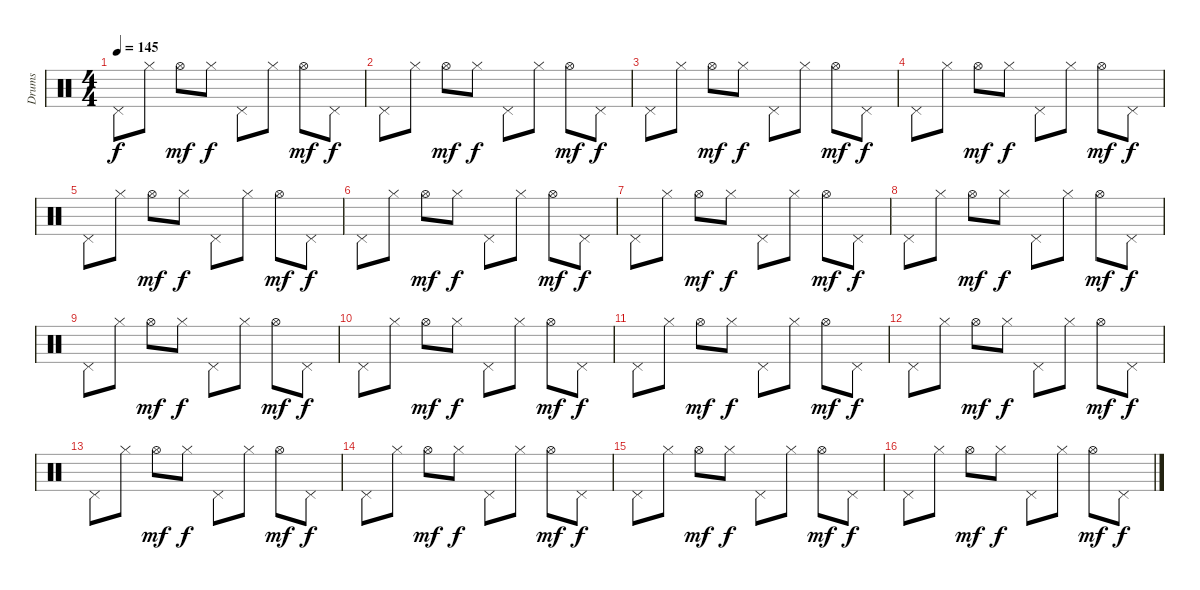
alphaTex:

\track ("Drums" "Drums") {instrument percussion}
\staff {score}
\articulation defaults
\ts (4 4)
\tempo 145
\clef neutral
\ks c "Pedal Hi-Hat (hit)".8{dy f} "Hi-Hat (closed)".8 "Hi-Hat (open)".8{dy mf} "Hi-Hat (closed)".8{dy f} "Pedal Hi-Hat (hit)".8 "Hi-Hat (closed)".8 "Hi-Hat (open)".8{dy mf} "Pedal Hi-Hat (hit)".8{dy f}
|
"Pedal Hi-Hat (hit)".8 "Hi-Hat (closed)".8 "Hi-Hat (open)".8{dy mf} "Hi-Hat (closed)".8{dy f} "Pedal Hi-Hat (hit)".8 "Hi-Hat (closed)".8 "Hi-Hat (open)".8{dy mf} "Pedal Hi-Hat (hit)".8{dy f} |
"Pedal Hi-Hat (hit)".8 "Hi-Hat (closed)".8 "Hi-Hat (open)".8{dy mf} "Hi-Hat (closed)".8{dy f} "Pedal Hi-Hat (hit)".8 "Hi-Hat (closed)".8 "Hi-Hat (open)".8{dy mf} "Pedal Hi-Hat (hit)".8{dy f} |
"Pedal Hi-Hat (hit)".8 "Hi-Hat (closed)".8 "Hi-Hat (open)".8{dy mf} "Hi-Hat (closed)".8{dy f} "Pedal Hi-Hat (hit)".8 "Hi-Hat (closed)".8 "Hi-Hat (open)".8{dy mf} "Pedal Hi-Hat (hit)".8{dy f} |
"Pedal Hi-Hat (hit)".8 "Hi-Hat (closed)".8 "Hi-Hat (open)".8{dy mf} "Hi-Hat (closed)".8{dy f} "Pedal Hi-Hat (hit)".8 "Hi-Hat (closed)".8 "Hi-Hat (open)".8{dy mf} "Pedal Hi-Hat (hit)".8{dy f} |
"Pedal Hi-Hat (hit)".8 "Hi-Hat (closed)".8 "Hi-Hat (open)".8{dy mf} "Hi-Hat (closed)".8{dy f} "Pedal Hi-Hat (hit)".8 "Hi-Hat (closed)".8 "Hi-Hat (open)".8{dy mf} "Pedal Hi-Hat (hit)".8{dy f} |
"Pedal Hi-Hat (hit)".8 "Hi-Hat (closed)".8 "Hi-Hat (open)".8{dy mf} "Hi-Hat (closed)".8{dy f} "Pedal Hi-Hat (hit)".8 "Hi-Hat (closed)".8 "Hi-Hat (open)".8{dy mf} "Pedal Hi-Hat (hit)".8{dy f} |
"Pedal Hi-Hat (hit)".8 "Hi-Hat (closed)".8 "Hi-Hat (open)".8{dy mf} "Hi-Hat (closed)".8{dy f} "Pedal Hi-Hat (hit)".8 "Hi-Hat (closed)".8 "Hi-Hat (open)".8{dy mf} "Pedal Hi-Hat (hit)".8{dy f} |
"Pedal Hi-Hat (hit)".8 "Hi-Hat (closed)".8 "Hi-Hat (open)".8{dy mf} "Hi-Hat (closed)".8{dy f} "Pedal Hi-Hat (hit)".8 "Hi-Hat (closed)".8 "Hi-Hat (open)".8{dy mf} "Pedal Hi-Hat (hit)".8{dy f} |
"Pedal Hi-Hat (hit)".8 "Hi-Hat (closed)".8 "Hi-Hat (open)".8{dy mf} "Hi-Hat (closed)".8{dy f} "Pedal Hi-Hat (hit)".8 "Hi-Hat (closed)".8 "Hi-Hat (open)".8{dy mf} "Pedal Hi-Hat (hit)".8{dy f} |
"Pedal Hi-Hat (hit)".8 "Hi-Hat (closed)".8 "Hi-Hat (open)".8{dy mf} "Hi-Hat (closed)".8{dy f} "Pedal Hi-Hat (hit)".8 "Hi-Hat (closed)".8 "Hi-Hat (open)".8{dy mf} "Pedal Hi-Hat (hit)".8{dy f} |
"Pedal Hi-Hat (hit)".8 "Hi-Hat (closed)".8 "Hi-Hat (open)".8{dy mf} "Hi-Hat (closed)".8{dy f} "Pedal Hi-Hat (hit)".8 "Hi-Hat (closed)".8 "Hi-Hat (open)".8{dy mf} "Pedal Hi-Hat (hit)".8{dy f} |
"Pedal Hi-Hat (hit)".8 "Hi-Hat (closed)".8 "Hi-Hat (open)".8{dy mf} "Hi-Hat (closed)".8{dy f} "Pedal Hi-Hat (hit)".8 "Hi-Hat (closed)".8 "Hi-Hat (open)".8{dy mf} "Pedal Hi-Hat (hit)".8{dy f} |
"Pedal Hi-Hat (hit)".8 "Hi-Hat (closed)".8 "Hi-Hat (open)".8{dy mf} "Hi-Hat (closed)".8{dy f} "Pedal Hi-Hat (hit)".8 "Hi-Hat (closed)".8 "Hi-Hat (open)".8{dy mf} "Pedal Hi-Hat (hit)".8{dy f} |
"Pedal Hi-Hat (hit)".8 "Hi-Hat (closed)".8 "Hi-Hat (open)".8{dy mf} "Hi-Hat (closed)".8{dy f} "Pedal Hi-Hat (hit)".8 "Hi-Hat (closed)".8 "Hi-Hat (open)".8{dy mf} "Pedal Hi-Hat (hit)".8{dy f} |
"Pedal Hi-Hat (hit)".8 "Hi-Hat (closed)".8 "Hi-Hat (open)".8{dy mf} "Hi-Hat (closed)".8{dy f} "Pedal Hi-Hat (hit)".8 "Hi-Hat (closed)".8 "Hi-Hat (open)".8{dy mf} "Pedal Hi-Hat (hit)".8{dy f}
